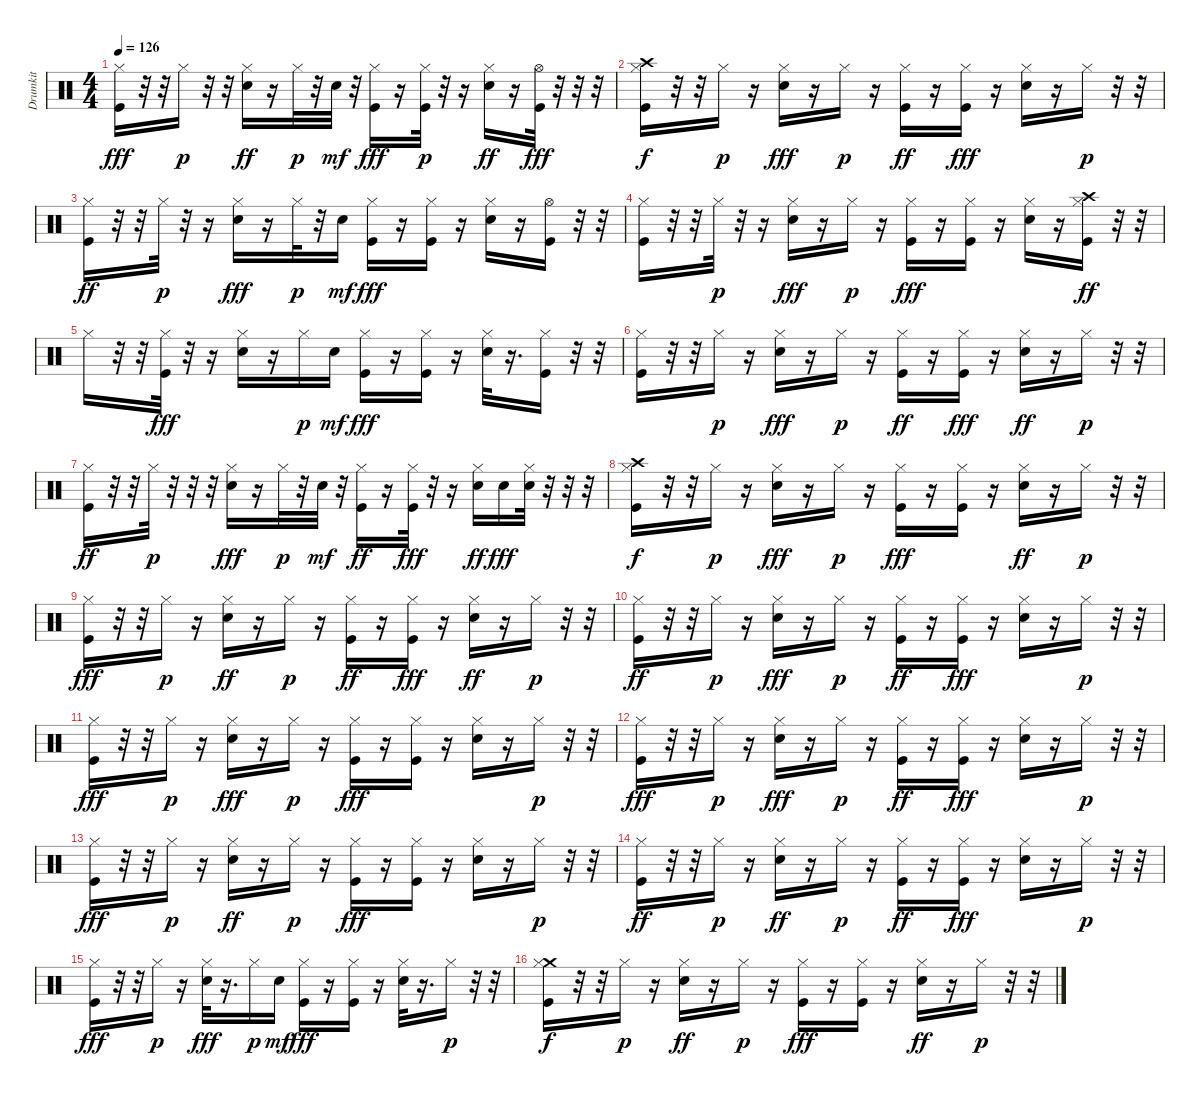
\track ("Drumkit" "Drumkit") {instrument percussion}
\staff {score}
\articulation defaults
\ts (4 4)
\tempo 126
\clef neutral
\ks c
("Kick (hit)" "Hi-Hat (closed)").16{dy fff} r.32 r.32 "Hi-Hat (closed)".16{dy p} r.32 r.32 ("Hi-Hat (closed)" "Snare (hit) 2").16{dy ff} r.16 "Hi-Hat (closed)".32{dy p} r.32 "Snare (hit) 2".32{dy mf} r.32 ("Kick (hit)" "Hi-Hat (closed)").16{dy fff} r.16 ("Hi-Hat (closed)" "Kick (hit)").32{dy p} r.32 r.16 ("Hi-Hat (closed)" "Snare (hit) 2").16{dy ff} r.16 ("Kick (hit)" "Hi-Hat (open)").32{dy fff} r.32 r.32 r.32 |
("Crash high (hit)" "Kick (hit)" "Hi-Hat (closed)").16{dy f} r.32 r.32 "Hi-Hat (closed)".16{dy p} r.16 ("Snare (hit) 2" "Hi-Hat (closed)").16{dy fff} r.16 "Hi-Hat (closed)".16{dy p} r.16 ("Hi-Hat (closed)" "Kick (hit)").16{dy ff} r.16 ("Kick (hit)" "Hi-Hat (closed)").16{dy fff} r.16 ("Snare (hit) 2" "Hi-Hat (closed)").16 r.16 "Hi-Hat (closed)".16{dy p} r.32 r.32 |
("Hi-Hat (closed)" "Kick (hit)").16{dy ff} r.32 r.32 "Hi-Hat (closed)".32{dy p} r.32 r.16 ("Snare (hit) 2" "Hi-Hat (closed)").16{dy fff} r.16 "Hi-Hat (closed)".32{dy p} r.32 "Snare (hit) 2".16{dy mf} ("Kick (hit)" "Hi-Hat (closed)").16{dy fff} r.16 ("Kick (hit)" "Hi-Hat (closed)").16 r.16 ("Snare (hit) 2" "Hi-Hat (closed)").16 r.16 ("Kick (hit)" "Hi-Hat (open)").16 r.32 r.32 |
("Kick (hit)" "Hi-Hat (closed)").16 r.32 r.32 "Hi-Hat (closed)".32{dy p} r.32 r.16 ("Snare (hit) 2" "Hi-Hat (closed)").16{dy fff} r.16 "Hi-Hat (closed)".16{dy p} r.16 ("Kick (hit)" "Hi-Hat (closed)").16{dy fff} r.16 ("Kick (hit)" "Hi-Hat (closed)").16 r.16 ("Snare (hit) 2" "Hi-Hat (closed)").16 r.16 ("Crash high (hit)" "Kick (hit)" "Hi-Hat (closed)").16{dy ff} r.32 r.32 |
"Hi-Hat (closed)".16 r.32 r.32 ("Kick (hit)" "Hi-Hat (closed)").32{dy fff} r.32 r.16 ("Snare (hit) 2" "Hi-Hat (closed)").16 r.16 "Hi-Hat (closed)".16{dy p} "Snare (hit) 2".16{dy mf} ("Kick (hit)" "Hi-Hat (closed)").16{dy fff} r.16 ("Kick (hit)" "Hi-Hat (closed)").16 r.16 ("Snare (hit) 2" "Hi-Hat (closed)").32 r.16{d} ("Kick (hit)" "Hi-Hat (closed)").16 r.32 r.32 |
("Kick (hit)" "Hi-Hat (closed)").16 r.32 r.32 "Hi-Hat (closed)".16{dy p} r.16 ("Snare (hit) 2" "Hi-Hat (closed)").16{dy fff} r.16 "Hi-Hat (closed)".16{dy p} r.16 ("Hi-Hat (closed)" "Kick (hit)").16{dy ff} r.16 ("Kick (hit)" "Hi-Hat (closed)").16{dy fff} r.16 ("Hi-Hat (closed)" "Snare (hit) 2").16{dy ff} r.16 "Hi-Hat (closed)".16{dy p} r.32 r.32 |
("Hi-Hat (closed)" "Kick (hit)").16{dy ff} r.32 r.32 "Hi-Hat (closed)".32{dy p} r.32 r.32 r.32 ("Snare (hit) 2" "Hi-Hat (closed)").16{dy fff} r.16 "Hi-Hat (closed)".32{dy p} r.32 "Snare (hit) 2".32{dy mf} r.32 ("Hi-Hat (closed)" "Kick (hit)").16{dy ff} r.16 ("Kick (hit)" "Hi-Hat (closed)").32{dy fff} r.32 r.16 ("Hi-Hat (closed)" "Snare (hit) 2").16{dy ff} "Snare (hit) 2".16{dy fff} ("Snare (hit) 2" "Hi-Hat (closed)").32 r.32 r.32 r.32 |
("Crash high (hit)" "Hi-Hat (closed)" "Kick (hit)").16{dy f} r.32 r.32 "Hi-Hat (closed)".16{dy p} r.16 ("Snare (hit) 2" "Hi-Hat (closed)").16{dy fff} r.16 "Hi-Hat (closed)".16{dy p} r.16 ("Kick (hit)" "Hi-Hat (closed)").16{dy fff} r.16 ("Kick (hit)" "Hi-Hat (closed)").16 r.16 ("Hi-Hat (closed)" "Snare (hit) 2").16{dy ff} r.16 "Hi-Hat (closed)".16{dy p} r.32 r.32 |
("Kick (hit)" "Hi-Hat (closed)").16{dy fff} r.32 r.32 "Hi-Hat (closed)".16{dy p} r.16 ("Hi-Hat (closed)" "Snare (hit) 2").16{dy ff} r.16 "Hi-Hat (closed)".16{dy p} r.16 ("Hi-Hat (closed)" "Kick (hit)").16{dy ff} r.16 ("Kick (hit)" "Hi-Hat (closed)").16{dy fff} r.16 ("Hi-Hat (closed)" "Snare (hit) 2").16{dy ff} r.16 "Hi-Hat (closed)".16{dy p} r.32 r.32 |
("Hi-Hat (closed)" "Kick (hit)").16{dy ff} r.32 r.32 "Hi-Hat (closed)".16{dy p} r.16 ("Snare (hit) 2" "Hi-Hat (closed)").16{dy fff} r.16 "Hi-Hat (closed)".16{dy p} r.16 ("Hi-Hat (closed)" "Kick (hit)").16{dy ff} r.16 ("Kick (hit)" "Hi-Hat (closed)").16{dy fff} r.16 ("Snare (hit) 2" "Hi-Hat (closed)").16 r.16 "Hi-Hat (closed)".16{dy p} r.32 r.32 |
("Kick (hit)" "Hi-Hat (closed)").16{dy fff} r.32 r.32 "Hi-Hat (closed)".16{dy p} r.16 ("Snare (hit) 2" "Hi-Hat (closed)").16{dy fff} r.16 "Hi-Hat (closed)".16{dy p} r.16 ("Kick (hit)" "Hi-Hat (closed)").16{dy fff} r.16 ("Kick (hit)" "Hi-Hat (closed)").16 r.16 ("Snare (hit) 2" "Hi-Hat (closed)").16 r.16 "Hi-Hat (closed)".16{dy p} r.32 r.32 |
("Kick (hit)" "Hi-Hat (closed)").16{dy fff} r.32 r.32 "Hi-Hat (closed)".16{dy p} r.16 ("Snare (hit) 2" "Hi-Hat (closed)").16{dy fff} r.16 "Hi-Hat (closed)".16{dy p} r.16 ("Hi-Hat (closed)" "Kick (hit)").16{dy ff} r.16 ("Kick (hit)" "Hi-Hat (closed)").16{dy fff} r.16 ("Snare (hit) 2" "Hi-Hat (closed)").16 r.16 "Hi-Hat (closed)".16{dy p} r.32 r.32 |
("Kick (hit)" "Hi-Hat (closed)").16{dy fff} r.32 r.32 "Hi-Hat (closed)".16{dy p} r.16 ("Hi-Hat (closed)" "Snare (hit) 2").16{dy ff} r.16 "Hi-Hat (closed)".16{dy p} r.16 ("Kick (hit)" "Hi-Hat (closed)").16{dy fff} r.16 ("Kick (hit)" "Hi-Hat (closed)").16 r.16 ("Snare (hit) 2" "Hi-Hat (closed)").16 r.16 "Hi-Hat (closed)".16{dy p} r.32 r.32 |
("Hi-Hat (closed)" "Kick (hit)").16{dy ff} r.32 r.32 "Hi-Hat (closed)".16{dy p} r.16 ("Hi-Hat (closed)" "Snare (hit) 2").16{dy ff} r.16 "Hi-Hat (closed)".16{dy p} r.16 ("Hi-Hat (closed)" "Kick (hit)").16{dy ff} r.16 ("Kick (hit)" "Hi-Hat (closed)").16{dy fff} r.16 ("Snare (hit) 2" "Hi-Hat (closed)").16 r.16 "Hi-Hat (closed)".16{dy p} r.32 r.32 |
("Kick (hit)" "Hi-Hat (closed)").16{dy fff} r.32 r.32 "Hi-Hat (closed)".16{dy p} r.16 ("Snare (hit) 2" "Hi-Hat (closed)").32{dy fff} r.16{d} "Hi-Hat (closed)".16{dy p} "Snare (hit) 2".16{dy mf} ("Kick (hit)" "Hi-Hat (closed)").16{dy fff} r.16 ("Kick (hit)" "Hi-Hat (closed)").16 r.16 ("Snare (hit) 2" "Hi-Hat (closed)").32 r.16{d} "Hi-Hat (closed)".16{dy p} r.32 r.32 |
("Crash medium (hit)" "Hi-Hat (closed)" "Kick (hit)").16{dy f} r.32 r.32 "Hi-Hat (closed)".16{dy p} r.16 ("Hi-Hat (closed)" "Snare (hit) 2").16{dy ff} r.16 "Hi-Hat (closed)".16{dy p} r.16 ("Kick (hit)" "Hi-Hat (closed)").16{dy fff} r.16 ("Kick (hit)" "Hi-Hat (closed)").16 r.16 ("Hi-Hat (closed)" "Snare (hit) 2").16{dy ff} r.16 "Hi-Hat (closed)".16{dy p} r.32 r.32
